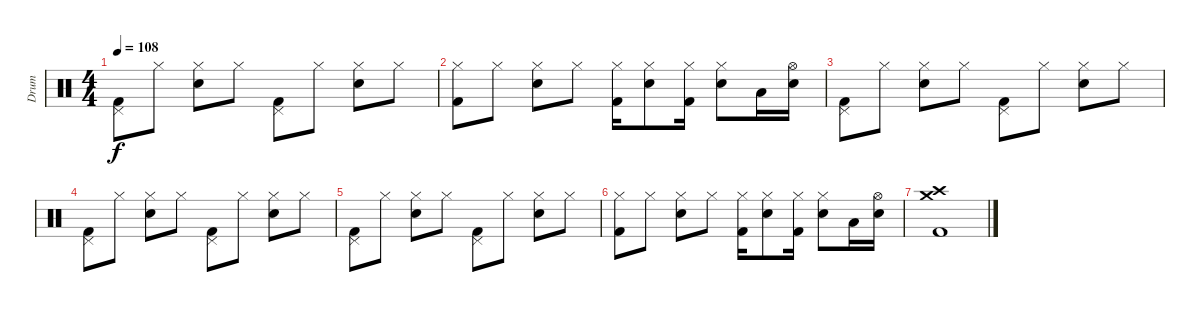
\track ("Drum" "Drum") {instrument percussion}
\staff {score}
\articulation defaults
\ts (4 4)
\tempo 108
\clef neutral
\ks c
("Pedal Hi-Hat (hit)" "Kick (hit) 2").8{dy f volume 3} "Hi-Hat (closed)".8 ("Hi-Hat (closed)" "Electric Snare (hit)").8 "Hi-Hat (closed)".8 ("Pedal Hi-Hat (hit)" "Kick (hit) 2").8 "Hi-Hat (closed)".8 ("Hi-Hat (closed)" "Electric Snare (hit)").8 "Hi-Hat (closed)".8 |
("Hi-Hat (closed)" "Kick (hit) 2").8 "Hi-Hat (closed)".8 ("Hi-Hat (closed)" "Electric Snare (hit)").8 "Hi-Hat (closed)".8 ("Hi-Hat (closed)" "Kick (hit) 2").16 ("Hi-Hat (closed)" "Electric Snare (hit)").8 ("Hi-Hat (closed)" "Kick (hit) 2").16 ("Hi-Hat (closed)" "Electric Snare (hit)").8 "Low Tom (hit)".16 ("Hi-Hat (open)" "Electric Snare (hit)").16 |
("Pedal Hi-Hat (hit)" "Kick (hit) 2").8 "Hi-Hat (closed)".8 ("Hi-Hat (closed)" "Electric Snare (hit)").8 "Hi-Hat (closed)".8 ("Pedal Hi-Hat (hit)" "Kick (hit) 2").8 "Hi-Hat (closed)".8 ("Hi-Hat (closed)" "Electric Snare (hit)").8 "Hi-Hat (closed)".8 |
("Pedal Hi-Hat (hit)" "Kick (hit) 2").8 "Hi-Hat (closed)".8 ("Hi-Hat (closed)" "Electric Snare (hit)").8 "Hi-Hat (closed)".8 ("Pedal Hi-Hat (hit)" "Kick (hit) 2").8 "Hi-Hat (closed)".8 ("Hi-Hat (closed)" "Electric Snare (hit)").8 "Hi-Hat (closed)".8 |
("Pedal Hi-Hat (hit)" "Kick (hit) 2").8 "Hi-Hat (closed)".8 ("Hi-Hat (closed)" "Electric Snare (hit)").8 "Hi-Hat (closed)".8 ("Pedal Hi-Hat (hit)" "Kick (hit) 2").8 "Hi-Hat (closed)".8 ("Hi-Hat (closed)" "Electric Snare (hit)").8 "Hi-Hat (closed)".8 |
("Hi-Hat (closed)" "Kick (hit) 2").8 "Hi-Hat (closed)".8 ("Hi-Hat (closed)" "Electric Snare (hit)").8 "Hi-Hat (closed)".8 ("Hi-Hat (closed)" "Kick (hit) 2").16 ("Hi-Hat (closed)" "Electric Snare (hit)").8 ("Hi-Hat (closed)" "Kick (hit) 2").16 ("Hi-Hat (closed)" "Electric Snare (hit)").8 "Low Tom (hit)".16 ("Hi-Hat (open)" "Electric Snare (hit)").16 |
("Kick (hit) 2" "Crash high (hit)" "Crash medium (hit)").1
